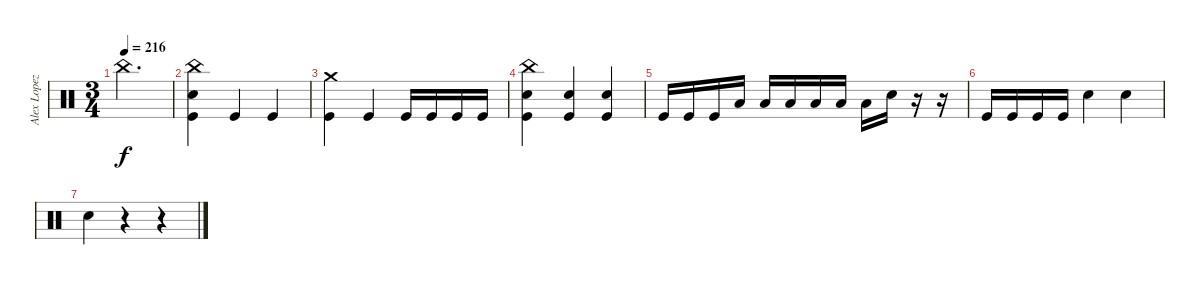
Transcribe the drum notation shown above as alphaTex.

\track ("Alex Lopez" "Alex Lopez") {instrument percussion}
\staff {score}
\articulation defaults
\ts (3 4)
\tempo 216
\clef neutral
\ks c "China (hit)".2{d dy f}
|
("China (hit)" "Electric Snare (hit)" "Kick (hit)").4 "Kick (hit)".4 "Kick (hit)".4 |
("Crash medium (hit)" "Kick (hit)").4 "Kick (hit)".4 "Kick (hit)".16 "Kick (hit)".16 "Kick (hit)".16 "Kick (hit)".16 |
("China (hit)" "Electric Snare (hit)" "Kick (hit)").4 ("Electric Snare (hit)" "Kick (hit)").4 ("Electric Snare (hit)" "Kick (hit)").4 |
"Kick (hit)".16 "Kick (hit)".16 "Kick (hit)".16 "Low Tom (hit)".16 "Low Tom (hit)".16 "Low Tom (hit)".16 "Low Floor Tom (hit)".16 "Low Floor Tom (hit)".16 "Low Floor Tom (hit)".16 "Electric Snare (hit)".16 r.16 r.16 |
"Kick (hit)".16 "Kick (hit)".16 "Kick (hit)".16 "Kick (hit)".16 "Electric Snare (hit)".4 "Electric Snare (hit)".4 |
"Electric Snare (hit)".4 r.4 r.4
